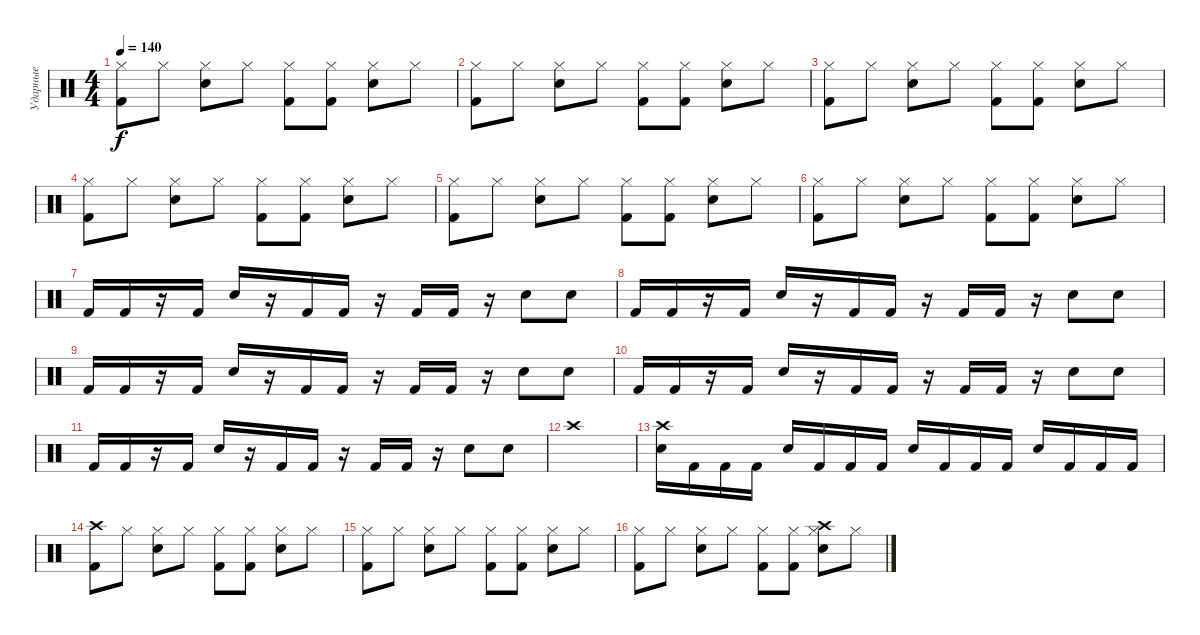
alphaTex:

\track ("Ударные" "Ударные") {instrument percussion}
\staff {score}
\articulation defaults
\ts (4 4)
\tempo 140
\clef neutral
\ks c
("Hi-Hat (closed)" "Kick (hit) 2").8{dy f} "Hi-Hat (closed)".8 ("Hi-Hat (closed)" "Snare (hit) 2").8 "Hi-Hat (closed)".8 ("Kick (hit) 2" "Hi-Hat (closed)").8 ("Kick (hit) 2" "Hi-Hat (closed)").8 ("Snare (hit) 2" "Hi-Hat (closed)").8 "Hi-Hat (closed)".8 |
("Hi-Hat (closed)" "Kick (hit) 2").8 "Hi-Hat (closed)".8 ("Hi-Hat (closed)" "Snare (hit) 2").8 "Hi-Hat (closed)".8 ("Kick (hit) 2" "Hi-Hat (closed)").8 ("Kick (hit) 2" "Hi-Hat (closed)").8 ("Snare (hit) 2" "Hi-Hat (closed)").8 "Hi-Hat (closed)".8 |
("Hi-Hat (closed)" "Kick (hit) 2").8 "Hi-Hat (closed)".8 ("Hi-Hat (closed)" "Snare (hit) 2").8 "Hi-Hat (closed)".8 ("Kick (hit) 2" "Hi-Hat (closed)").8 ("Kick (hit) 2" "Hi-Hat (closed)").8 ("Snare (hit) 2" "Hi-Hat (closed)").8 "Hi-Hat (closed)".8 |
("Hi-Hat (closed)" "Kick (hit) 2").8 "Hi-Hat (closed)".8 ("Hi-Hat (closed)" "Snare (hit) 2").8 "Hi-Hat (closed)".8 ("Kick (hit) 2" "Hi-Hat (closed)").8 ("Kick (hit) 2" "Hi-Hat (closed)").8 ("Snare (hit) 2" "Hi-Hat (closed)").8 "Hi-Hat (closed)".8 |
("Hi-Hat (closed)" "Kick (hit) 2").8 "Hi-Hat (closed)".8 ("Hi-Hat (closed)" "Snare (hit) 2").8 "Hi-Hat (closed)".8 ("Kick (hit) 2" "Hi-Hat (closed)").8 ("Kick (hit) 2" "Hi-Hat (closed)").8 ("Snare (hit) 2" "Hi-Hat (closed)").8 "Hi-Hat (closed)".8 |
("Hi-Hat (closed)" "Kick (hit) 2").8 "Hi-Hat (closed)".8 ("Hi-Hat (closed)" "Snare (hit) 2").8 "Hi-Hat (closed)".8 ("Kick (hit) 2" "Hi-Hat (closed)").8 ("Kick (hit) 2" "Hi-Hat (closed)").8 ("Snare (hit) 2" "Hi-Hat (closed)").8 "Hi-Hat (closed)".8 |
"Kick (hit) 2".16 "Kick (hit) 2".16 r.16 "Kick (hit) 2".16 "Snare (hit) 2".16 r.16 "Kick (hit) 2".16 "Kick (hit) 2".16 r.16 "Kick (hit) 2".16 "Kick (hit) 2".16 r.16 "Snare (hit) 2".8 "Snare (hit) 2".8 |
"Kick (hit) 2".16 "Kick (hit) 2".16 r.16 "Kick (hit) 2".16 "Snare (hit) 2".16 r.16 "Kick (hit) 2".16 "Kick (hit) 2".16 r.16 "Kick (hit) 2".16 "Kick (hit) 2".16 r.16 "Snare (hit) 2".8 "Snare (hit) 2".8 |
"Kick (hit) 2".16 "Kick (hit) 2".16 r.16 "Kick (hit) 2".16 "Snare (hit) 2".16 r.16 "Kick (hit) 2".16 "Kick (hit) 2".16 r.16 "Kick (hit) 2".16 "Kick (hit) 2".16 r.16 "Snare (hit) 2".8 "Snare (hit) 2".8 |
"Kick (hit) 2".16 "Kick (hit) 2".16 r.16 "Kick (hit) 2".16 "Snare (hit) 2".16 r.16 "Kick (hit) 2".16 "Kick (hit) 2".16 r.16 "Kick (hit) 2".16 "Kick (hit) 2".16 r.16 "Snare (hit) 2".8 "Snare (hit) 2".8 |
"Kick (hit) 2".16 "Kick (hit) 2".16 r.16 "Kick (hit) 2".16 "Snare (hit) 2".16 r.16 "Kick (hit) 2".16 "Kick (hit) 2".16 r.16 "Kick (hit) 2".16 "Kick (hit) 2".16 r.16 "Snare (hit) 2".8 "Snare (hit) 2".8 |
"Crash high (hit)".1 |
("Crash high (hit)" "Snare (hit) 2").16 "Kick (hit) 2".16 "Kick (hit) 2".16 "Kick (hit) 2".16 "Snare (hit) 2".16 "Kick (hit) 2".16 "Kick (hit) 2".16 "Kick (hit) 2".16 "Snare (hit) 2".16 "Kick (hit) 2".16 "Kick (hit) 2".16 "Kick (hit) 2".16 "Snare (hit) 2".16 "Kick (hit) 2".16 "Kick (hit) 2".16 "Kick (hit) 2".16 |
("Crash high (hit)" "Kick (hit) 2").8 "Hi-Hat (closed)".8 ("Hi-Hat (closed)" "Snare (hit) 2").8 "Hi-Hat (closed)".8 ("Kick (hit) 2" "Hi-Hat (closed)").8 ("Kick (hit) 2" "Hi-Hat (closed)").8 ("Snare (hit) 2" "Hi-Hat (closed)").8 "Hi-Hat (closed)".8 |
("Hi-Hat (closed)" "Kick (hit) 2").8 "Hi-Hat (closed)".8 ("Hi-Hat (closed)" "Snare (hit) 2").8 "Hi-Hat (closed)".8 ("Kick (hit) 2" "Hi-Hat (closed)").8 ("Kick (hit) 2" "Hi-Hat (closed)").8 ("Snare (hit) 2" "Hi-Hat (closed)").8 "Hi-Hat (closed)".8 |
("Hi-Hat (closed)" "Kick (hit) 2").8 "Hi-Hat (closed)".8 ("Hi-Hat (closed)" "Snare (hit) 2").8 "Hi-Hat (closed)".8 ("Kick (hit) 2" "Hi-Hat (closed)").8 ("Kick (hit) 2" "Hi-Hat (closed)").8 ("Crash high (hit)" "Snare (hit) 2" "Hi-Hat (closed)").8 "Hi-Hat (closed)".8
